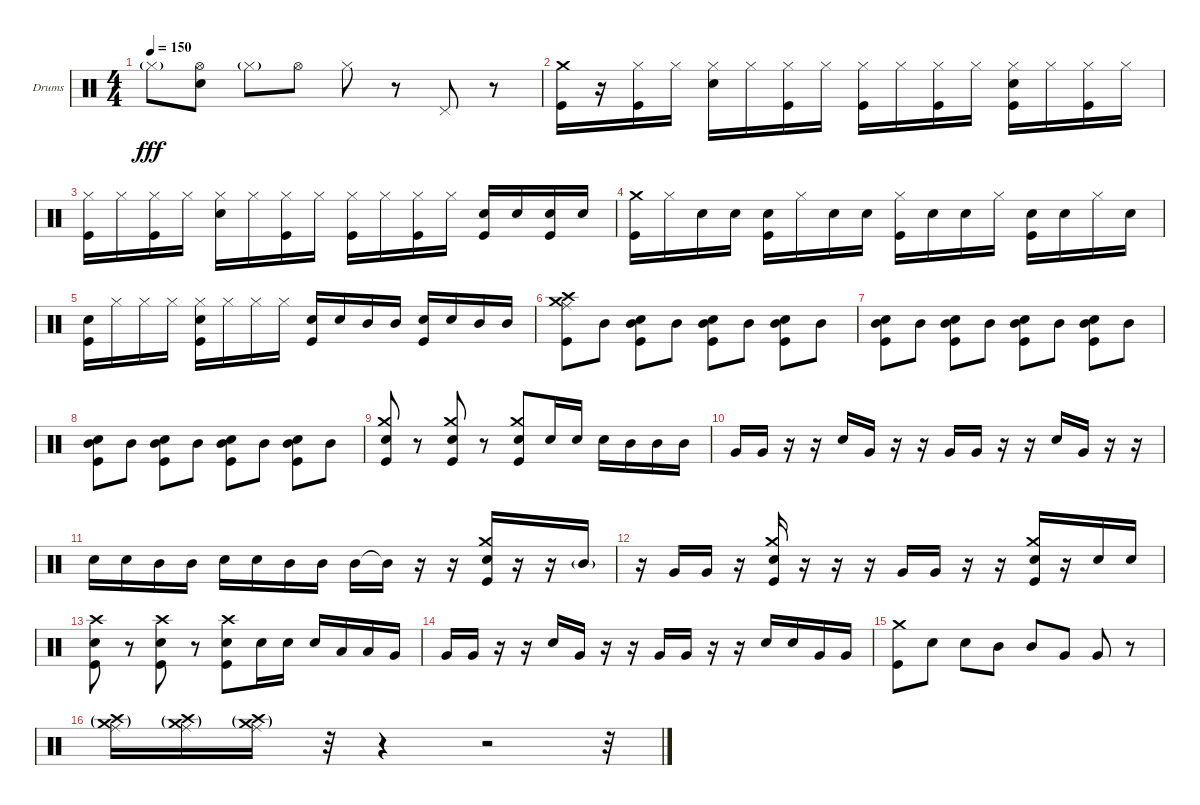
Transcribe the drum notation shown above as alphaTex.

\defaultSystemsLayout 4
\bracketExtendMode groupsimilarinstruments
\firstSystemTrackNameOrientation horizontal
\otherSystemsTrackNameOrientation horizontal
\track ("Matt Helders" "Drums") {instrument percussion}
\staff {score}
\articulation defaults
\ts (4 4)
\tempo 150
\clef neutral
\ks c "Hi-Hat (closed)"{g}.8{dy fff}
("Hi-Hat (open)" "Snare (hit) 2").8 "Hi-Hat (closed)"{g}.8 "Hi-Hat (open)".8 "Hi-Hat (closed)".8 r.8 "Pedal Hi-Hat (hit)".8 r.8 |
("Crash medium (hit)" "Kick (hit)").16 r.16 ("Hi-Hat (closed)" "Kick (hit)").16 "Hi-Hat (closed)".16 ("Hi-Hat (closed)" "Snare (hit) 2").16 "Hi-Hat (closed)".16 ("Hi-Hat (closed)" "Kick (hit)").16 "Hi-Hat (closed)".16 ("Hi-Hat (closed)" "Kick (hit)").16 "Hi-Hat (closed)".16 ("Hi-Hat (closed)" "Kick (hit)").16 "Hi-Hat (closed)".16 ("Hi-Hat (closed)" "Snare (hit) 2" "Kick (hit)").16 "Hi-Hat (closed)".16 ("Hi-Hat (closed)" "Kick (hit)").16 "Hi-Hat (closed)".16 |
("Hi-Hat (closed)" "Kick (hit)").16 "Hi-Hat (closed)".16 ("Hi-Hat (closed)" "Kick (hit)").16 "Hi-Hat (closed)".16 ("Hi-Hat (closed)" "Snare (hit) 2").16 "Hi-Hat (closed)".16 ("Hi-Hat (closed)" "Kick (hit)").16 "Hi-Hat (closed)".16 ("Hi-Hat (closed)" "Kick (hit)").16 "Hi-Hat (closed)".16 ("Hi-Hat (closed)" "Kick (hit)").16 "Hi-Hat (closed)".16 ("Snare (hit) 2" "Kick (hit)").16 "Snare (hit) 2".16 ("Snare (hit) 2" "Kick (hit)").16 "Snare (hit) 2".16 |
("Crash medium (hit)" "Kick (hit)").16 "Hi-Hat (closed)".16 "Snare (hit) 2".16 "Snare (hit) 2".16 ("Snare (hit) 2" "Kick (hit)").16 "Hi-Hat (closed)".16 "Snare (hit) 2".16 "Snare (hit) 2".16 ("Hi-Hat (closed)" "Kick (hit)").16 "Snare (hit) 2".16 "Snare (hit) 2".16 "Hi-Hat (closed)".16 ("Snare (hit) 2" "Kick (hit)").16 "Snare (hit) 2".16 "Hi-Hat (closed)".16 "Snare (hit) 2".16 |
("Snare (hit) 2" "Kick (hit)").16 "Hi-Hat (closed)".16 "Hi-Hat (closed)".16 "Hi-Hat (closed)".16 ("Hi-Hat (closed)" "Snare (hit) 2" "Kick (hit)").16 "Hi-Hat (closed)".16 "Hi-Hat (closed)".16 "Hi-Hat (closed)".16 ("Snare (hit) 2" "Kick (hit)").16 "Snare (hit) 2".16 "Mid Tom (hit)".16 "Mid Tom (hit)".16 ("Snare (hit) 2" "Kick (hit)").16 "Snare (hit) 2".16 "Mid Tom (hit)".16 "Mid Tom (hit)".16 |
("Crash medium (hit)" "Crash high (hit)" "Kick (hit)" "Ride (middle)").8 "Mid Tom (hit)".8 ("Snare (hit) 2" "Mid Tom (hit)" "Kick (hit)").8 "Mid Tom (hit)".8 ("Snare (hit) 2" "Mid Tom (hit)" "Kick (hit)").8 "Mid Tom (hit)".8 ("Snare (hit) 2" "Mid Tom (hit)" "Kick (hit)").8 "Mid Tom (hit)".8 |
("Snare (hit) 2" "Mid Tom (hit)" "Kick (hit)").8 "Mid Tom (hit)".8 ("Snare (hit) 2" "Mid Tom (hit)" "Kick (hit)").8 "Mid Tom (hit)".8 ("Snare (hit) 2" "Mid Tom (hit)" "Kick (hit)").8 "Mid Tom (hit)".8 ("Snare (hit) 2" "Mid Tom (hit)" "Kick (hit)").8 "Mid Tom (hit)".8 |
("Snare (hit) 2" "Mid Tom (hit)" "Kick (hit)").8 "Mid Tom (hit)".8 ("Snare (hit) 2" "Mid Tom (hit)" "Kick (hit)").8 "Mid Tom (hit)".8 ("Snare (hit) 2" "Mid Tom (hit)" "Kick (hit)").8 "Mid Tom (hit)".8 ("Snare (hit) 2" "Mid Tom (hit)" "Kick (hit)").8 "Mid Tom (hit)".8 |
("Kick (hit)" "Snare (hit) 2" "Crash medium (hit)").8 r.8 ("Kick (hit)" "Snare (hit) 2" "Crash medium (hit)").8 r.8 ("Kick (hit)" "Snare (hit) 2" "Crash medium (hit)").8 "Snare (hit) 2".16 "Snare (hit) 2".16 "Snare (hit) 2".16 "Mid Tom (hit)".16 "Mid Tom (hit)".16 "Mid Tom (hit)".16 |
"Very Low Tom (hit)".16 "Very Low Tom (hit)".16 r.16 r.16 "Snare (hit) 2".16 "Very Low Tom (hit)".16 r.16 r.16 "Very Low Tom (hit)".16 "Very Low Tom (hit)".16 r.16 r.16 "Snare (hit) 2".16 "Very Low Tom (hit)".16 r.16 r.16 |
"Snare (hit) 2".16 "Snare (hit) 2".16 "Mid Tom (hit)".16 "Mid Tom (hit)".16 "Snare (hit) 2".16 "Snare (hit) 2".16 "Mid Tom (hit)".16 "Mid Tom (hit)".16 "Mid Tom (hit)".16 "Mid Tom (hit)"{t}.16 r.16 r.16 ("Crash medium (hit)" "Snare (hit) 2" "Kick (hit)").16 r.16 r.16 "Mid Tom (hit)"{g}.16 |
r.16 "Very Low Tom (hit)".16 "Very Low Tom (hit)".16 r.16 ("Crash medium (hit)" "Kick (hit)" "Snare (hit) 2").16 r.16 r.16 r.16 "Very Low Tom (hit)".16 "Very Low Tom (hit)".16 r.16 r.16 ("Crash medium (hit)" "Kick (hit)" "Snare (hit) 2").16 r.16 "Snare (hit) 2".16 "Snare (hit) 2".16 |
("Kick (hit)" "Snare (hit) 2" "Crash high (hit)").8 r.8 ("Kick (hit)" "Snare (hit) 2" "Crash high (hit)").8 r.8 ("Kick (hit)" "Snare (hit) 2" "Crash high (hit)").8 "Snare (hit) 2".16 "Snare (hit) 2".16 "Snare (hit) 2".16 "Low Tom (hit)".16 "Low Tom (hit)".16 "Very Low Tom (hit)".16 |
"Very Low Tom (hit)".16 "Very Low Tom (hit)".16 r.16 r.16 "Snare (hit) 2".16 "Very Low Tom (hit)".16 r.16 r.16 "Very Low Tom (hit)".16 "Very Low Tom (hit)".16 r.16 r.16 "Snare (hit) 2".16 "Snare (hit) 2".16 "Very Low Tom (hit)".16 "Very Low Tom (hit)".16 |
("Crash medium (hit)" "Kick (hit)").8 "Snare (hit) 2".8 "Snare (hit) 2".8 "Mid Tom (hit)".8 "Mid Tom (hit)".8 "Very Low Tom (hit)".8 "Very Low Tom (hit)".8 r.8 |
("Crash high (hit)"{g} "Crash medium (hit)"{g} "Ride (middle)").16 ("Crash high (hit)"{g} "Crash medium (hit)"{g} "Ride (middle)").16 ("Crash high (hit)"{g} "Crash medium (hit)"{g} "Ride (middle)").16 r.32 r.4 r.2 r.32
